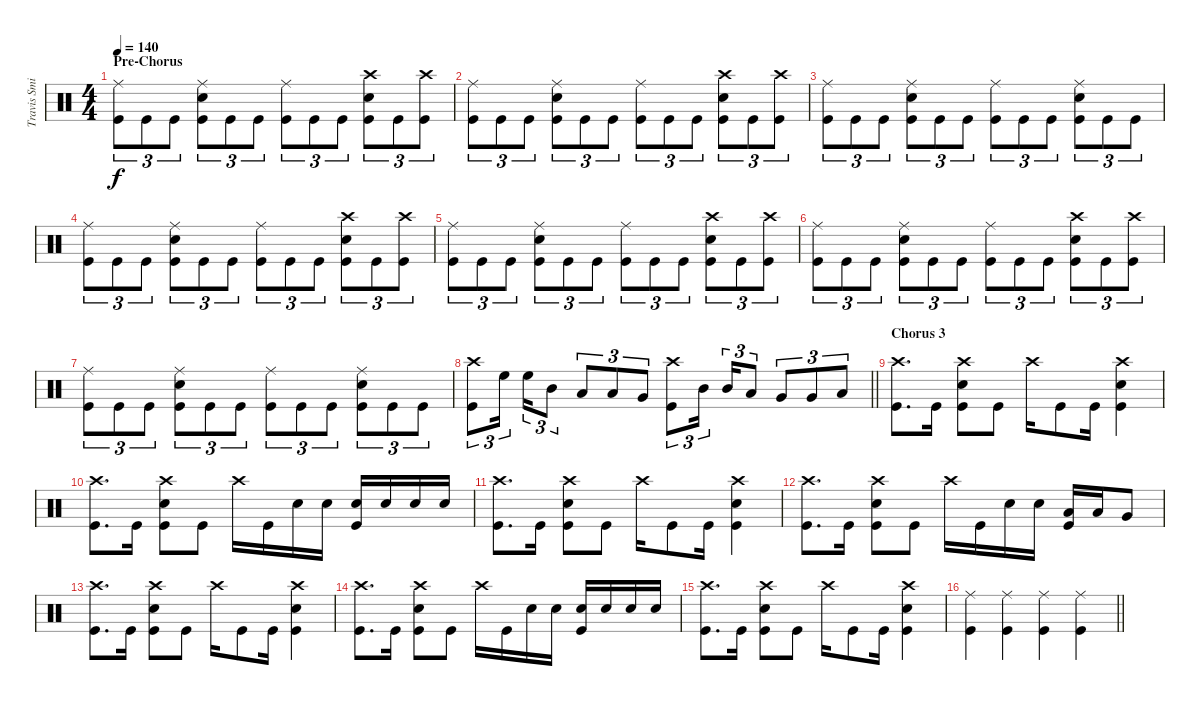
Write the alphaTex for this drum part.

\track ("Travis Smith" "Travis Smi") {instrument percussion}
\staff {score}
\articulation defaults
\ts (4 4)
\section ("" "Pre-Chorus")
\tempo 140
\clef neutral
\ks c
("Ride (middle)" "Kick (hit)").8{tu (3 2) dy f} "Kick (hit)".8{tu (3 2)} "Kick (hit)".8{tu (3 2)} ("Ride (middle)" "Snare (hit) 2" "Kick (hit)").8{tu (3 2)} "Kick (hit)".8{tu (3 2)} "Kick (hit)".8{tu (3 2)} ("Ride (middle)" "Kick (hit)").8{tu (3 2)} "Kick (hit)".8{tu (3 2)} "Kick (hit)".8{tu (3 2)} ("Crash high (hit)" "Snare (hit) 2" "Kick (hit)").8{tu (3 2)} "Kick (hit)".8{tu (3 2)} ("Crash high (hit)" "Kick (hit)").8{tu (3 2)} |
("Ride (middle)" "Kick (hit)").8{tu (3 2)} "Kick (hit)".8{tu (3 2)} "Kick (hit)".8{tu (3 2)} ("Ride (middle)" "Snare (hit) 2" "Kick (hit)").8{tu (3 2)} "Kick (hit)".8{tu (3 2)} "Kick (hit)".8{tu (3 2)} ("Ride (middle)" "Kick (hit)").8{tu (3 2)} "Kick (hit)".8{tu (3 2)} "Kick (hit)".8{tu (3 2)} ("Crash high (hit)" "Snare (hit) 2" "Kick (hit)").8{tu (3 2)} "Kick (hit)".8{tu (3 2)} ("Crash high (hit)" "Kick (hit)").8{tu (3 2)} |
("Ride (middle)" "Kick (hit)").8{tu (3 2)} "Kick (hit)".8{tu (3 2)} "Kick (hit)".8{tu (3 2)} ("Ride (middle)" "Snare (hit) 2" "Kick (hit)").8{tu (3 2)} "Kick (hit)".8{tu (3 2)} "Kick (hit)".8{tu (3 2)} ("Ride (middle)" "Kick (hit)").8{tu (3 2)} "Kick (hit)".8{tu (3 2)} "Kick (hit)".8{tu (3 2)} ("Ride (middle)" "Snare (hit) 2" "Kick (hit)").8{tu (3 2)} "Kick (hit)".8{tu (3 2)} "Kick (hit)".8{tu (3 2)} |
("Ride (middle)" "Kick (hit)").8{tu (3 2)} "Kick (hit)".8{tu (3 2)} "Kick (hit)".8{tu (3 2)} ("Ride (middle)" "Snare (hit) 2" "Kick (hit)").8{tu (3 2)} "Kick (hit)".8{tu (3 2)} "Kick (hit)".8{tu (3 2)} ("Ride (middle)" "Kick (hit)").8{tu (3 2)} "Kick (hit)".8{tu (3 2)} "Kick (hit)".8{tu (3 2)} ("Crash high (hit)" "Snare (hit) 2" "Kick (hit)").8{tu (3 2)} "Kick (hit)".8{tu (3 2)} ("Crash high (hit)" "Kick (hit)").8{tu (3 2)} |
("Ride (middle)" "Kick (hit)").8{tu (3 2)} "Kick (hit)".8{tu (3 2)} "Kick (hit)".8{tu (3 2)} ("Ride (middle)" "Snare (hit) 2" "Kick (hit)").8{tu (3 2)} "Kick (hit)".8{tu (3 2)} "Kick (hit)".8{tu (3 2)} ("Ride (middle)" "Kick (hit)").8{tu (3 2)} "Kick (hit)".8{tu (3 2)} "Kick (hit)".8{tu (3 2)} ("Crash high (hit)" "Snare (hit) 2" "Kick (hit)").8{tu (3 2)} "Kick (hit)".8{tu (3 2)} ("Crash high (hit)" "Kick (hit)").8{tu (3 2)} |
("Ride (middle)" "Kick (hit)").8{tu (3 2)} "Kick (hit)".8{tu (3 2)} "Kick (hit)".8{tu (3 2)} ("Ride (middle)" "Snare (hit) 2" "Kick (hit)").8{tu (3 2)} "Kick (hit)".8{tu (3 2)} "Kick (hit)".8{tu (3 2)} ("Ride (middle)" "Kick (hit)").8{tu (3 2)} "Kick (hit)".8{tu (3 2)} "Kick (hit)".8{tu (3 2)} ("Crash high (hit)" "Snare (hit) 2" "Kick (hit)").8{tu (3 2)} "Kick (hit)".8{tu (3 2)} ("Crash high (hit)" "Kick (hit)").8{tu (3 2)} |
("Ride (middle)" "Kick (hit)").8{tu (3 2)} "Kick (hit)".8{tu (3 2)} "Kick (hit)".8{tu (3 2)} ("Ride (middle)" "Snare (hit) 2" "Kick (hit)").8{tu (3 2)} "Kick (hit)".8{tu (3 2)} "Kick (hit)".8{tu (3 2)} ("Ride (middle)" "Kick (hit)").8{tu (3 2)} "Kick (hit)".8{tu (3 2)} "Kick (hit)".8{tu (3 2)} ("Ride (middle)" "Snare (hit) 2" "Kick (hit)").8{tu (3 2)} "Kick (hit)".8{tu (3 2)} "Kick (hit)".8{tu (3 2)} |
\barLineRight lightlight
("Crash high (hit)" "Kick (hit)").8{tu (3 2)} "High Floor Tom (hit)".16{tu (3 2) beam splitsecondary} "High Floor Tom (hit)".16{tu (3 2)} "Mid Tom (hit)".8{tu (3 2)} "Low Tom (hit)".8{tu (3 2)} "Low Tom (hit)".8{tu (3 2)} "Very Low Tom (hit)".8{tu (3 2)} ("Crash high (hit)" "Kick (hit)").8{tu (3 2)} "Mid Tom (hit)".16{tu (3 2) beam splitsecondary} "Mid Tom (hit)".16{tu (3 2)} "Low Tom (hit)".8{tu (3 2)} "Very Low Tom (hit)".8{tu (3 2)} "Very Low Tom (hit)".8{tu (3 2)} "Low Floor Tom (hit)".8{tu (3 2)} |
\section ("" "Chorus 3")
("Crash high (hit)" "Kick (hit)").8{d} "Kick (hit)".16 ("Crash high (hit)" "Snare (hit) 2" "Kick (hit)").8 "Kick (hit)".8 "Crash high (hit)".16 "Kick (hit)".8 "Kick (hit)".16 ("Crash high (hit)" "Snare (hit) 2" "Kick (hit)").4 |
("Crash high (hit)" "Kick (hit)").8{d} "Kick (hit)".16 ("Crash high (hit)" "Snare (hit) 2" "Kick (hit)").8 "Kick (hit)".8 "Crash high (hit)".16 "Kick (hit)".16 "Snare (hit) 2".16 "Snare (hit) 2".16 ("Snare (hit) 2" "Kick (hit)").16 "Snare (hit) 2".16 "Snare (hit) 2".16 "Snare (hit) 2".16 |
("Crash high (hit)" "Kick (hit)").8{d} "Kick (hit)".16 ("Crash high (hit)" "Snare (hit) 2" "Kick (hit)").8 "Kick (hit)".8 "Crash high (hit)".16 "Kick (hit)".8 "Kick (hit)".16 ("Crash high (hit)" "Snare (hit) 2" "Kick (hit)").4 |
("Crash high (hit)" "Kick (hit)").8{d} "Kick (hit)".16 ("Crash high (hit)" "Snare (hit) 2" "Kick (hit)").8 "Kick (hit)".8 "Crash high (hit)".16 "Kick (hit)".16 "Snare (hit) 2".16 "Snare (hit) 2".16 ("Low Tom (hit)" "Kick (hit)").16 "Low Tom (hit)".16 "Very Low Tom (hit)".8 |
("Crash high (hit)" "Kick (hit)").8{d} "Kick (hit)".16 ("Crash high (hit)" "Snare (hit) 2" "Kick (hit)").8 "Kick (hit)".8 "Crash high (hit)".16 "Kick (hit)".8 "Kick (hit)".16 ("Crash high (hit)" "Snare (hit) 2" "Kick (hit)").4 |
("Crash high (hit)" "Kick (hit)").8{d} "Kick (hit)".16 ("Crash high (hit)" "Snare (hit) 2" "Kick (hit)").8 "Kick (hit)".8 "Crash high (hit)".16 "Kick (hit)".16 "Snare (hit) 2".16 "Snare (hit) 2".16 ("Snare (hit) 2" "Kick (hit)").16 "Snare (hit) 2".16 "Snare (hit) 2".16 "Snare (hit) 2".16 |
("Crash high (hit)" "Kick (hit)").8{d} "Kick (hit)".16 ("Crash high (hit)" "Snare (hit) 2" "Kick (hit)").8 "Kick (hit)".8 "Crash high (hit)".16 "Kick (hit)".8 "Kick (hit)".16 ("Crash high (hit)" "Snare (hit) 2" "Kick (hit)").4 |
\barLineRight lightlight
("Ride (middle)" "Kick (hit)").4 ("Ride (middle)" "Kick (hit)").4 ("Ride (middle)" "Kick (hit)").4 ("Ride (middle)" "Kick (hit)").4
